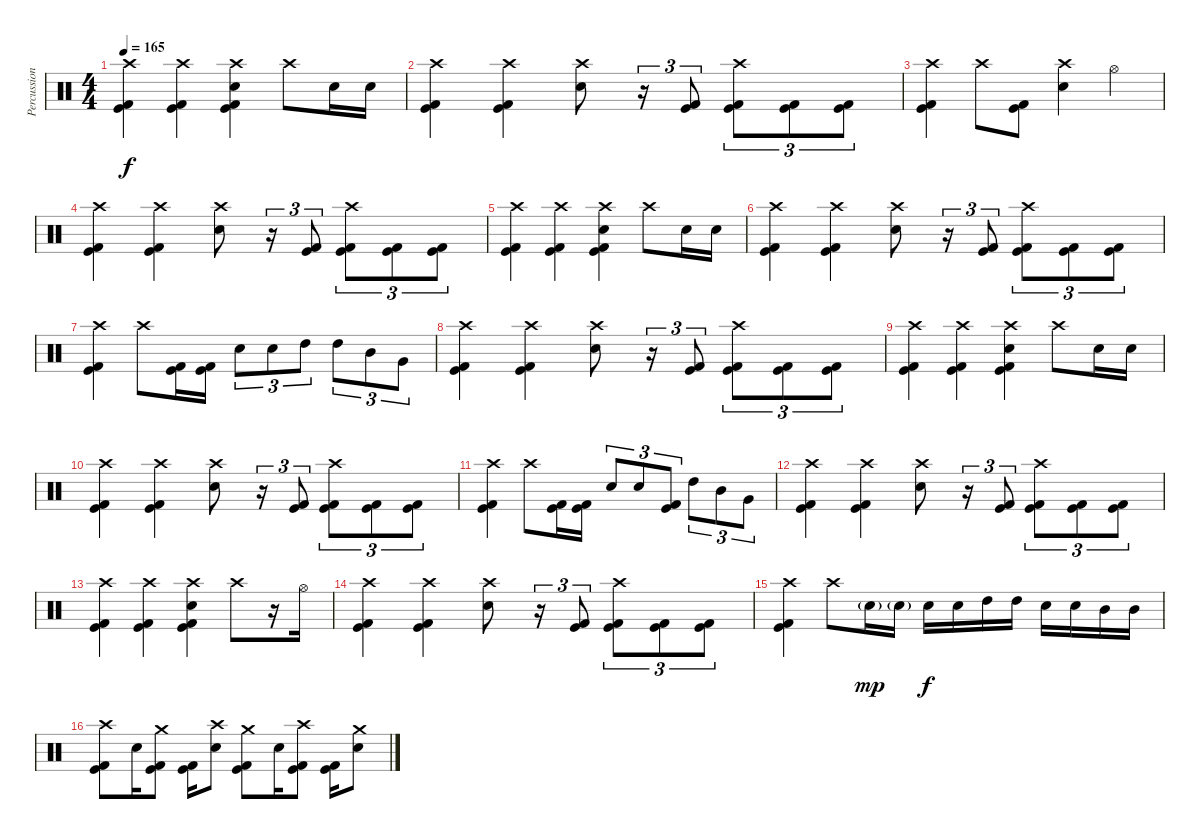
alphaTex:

\track ("Percussion" "Percussion") {instrument percussion}
\staff {score}
\articulation defaults
\ts (4 4)
\tempo 165
\clef neutral
\ks c
("Crash high (hit)" "Kick (hit)" "Kick (hit) 2").4{dy f} ("Crash high (hit)" "Kick (hit)" "Kick (hit) 2").4 ("Crash high (hit)" "Electric Snare (hit)" "Kick (hit)" "Kick (hit) 2").4 "Crash high (hit)".8 "Electric Snare (hit)".16 "Electric Snare (hit)".16 |
("Crash high (hit)" "Kick (hit)" "Kick (hit) 2").4 ("Crash high (hit)" "Kick (hit)" "Kick (hit) 2").4 ("Crash high (hit)" "Electric Snare (hit)").8 r.16{tu (3 2)} ("Kick (hit)" "Kick (hit) 2").8{tu (3 2)} ("Crash high (hit)" "Kick (hit)" "Kick (hit) 2").8{tu (3 2)} ("Kick (hit)" "Kick (hit) 2").8{tu (3 2)} ("Kick (hit)" "Kick (hit) 2").8{tu (3 2)} |
("Crash high (hit)" "Kick (hit)" "Kick (hit) 2").4 "Crash high (hit)".8 ("Kick (hit)" "Kick (hit) 2").8 ("Crash high (hit)" "Electric Snare (hit)").4 "Hi-Hat (open)".4 |
("Crash high (hit)" "Kick (hit)" "Kick (hit) 2").4 ("Crash high (hit)" "Kick (hit)" "Kick (hit) 2").4 ("Crash high (hit)" "Electric Snare (hit)").8 r.16{tu (3 2)} ("Kick (hit)" "Kick (hit) 2").8{tu (3 2)} ("Crash high (hit)" "Kick (hit)" "Kick (hit) 2").8{tu (3 2)} ("Kick (hit)" "Kick (hit) 2").8{tu (3 2)} ("Kick (hit)" "Kick (hit) 2").8{tu (3 2)} |
("Crash high (hit)" "Kick (hit)" "Kick (hit) 2").4 ("Crash high (hit)" "Kick (hit)" "Kick (hit) 2").4 ("Crash high (hit)" "Electric Snare (hit)" "Kick (hit)" "Kick (hit) 2").4 "Crash high (hit)".8 "Electric Snare (hit)".16 "Electric Snare (hit)".16 |
("Crash high (hit)" "Kick (hit)" "Kick (hit) 2").4 ("Crash high (hit)" "Kick (hit)" "Kick (hit) 2").4 ("Crash high (hit)" "Electric Snare (hit)").8 r.16{tu (3 2)} ("Kick (hit)" "Kick (hit) 2").8{tu (3 2)} ("Crash high (hit)" "Kick (hit)" "Kick (hit) 2").8{tu (3 2)} ("Kick (hit)" "Kick (hit) 2").8{tu (3 2)} ("Kick (hit)" "Kick (hit) 2").8{tu (3 2)} |
("Crash high (hit)" "Kick (hit)" "Kick (hit) 2").4 "Crash high (hit)".8 ("Kick (hit)" "Kick (hit) 2").16 ("Kick (hit)" "Kick (hit) 2").16 "Electric Snare (hit)".8{tu (3 2)} "Electric Snare (hit)".8{tu (3 2)} "High Tom (hit)".8{tu (3 2)} "High Tom (hit)".8{tu (3 2)} "Mid Tom (hit)".8{tu (3 2)} "Very Low Tom (hit)".8{tu (3 2)} |
("Crash high (hit)" "Kick (hit)" "Kick (hit) 2").4 ("Crash high (hit)" "Kick (hit)" "Kick (hit) 2").4 ("Crash high (hit)" "Electric Snare (hit)").8 r.16{tu (3 2)} ("Kick (hit)" "Kick (hit) 2").8{tu (3 2)} ("Crash high (hit)" "Kick (hit)" "Kick (hit) 2").8{tu (3 2)} ("Kick (hit)" "Kick (hit) 2").8{tu (3 2)} ("Kick (hit)" "Kick (hit) 2").8{tu (3 2)} |
("Crash high (hit)" "Kick (hit)" "Kick (hit) 2").4 ("Crash high (hit)" "Kick (hit)" "Kick (hit) 2").4 ("Crash high (hit)" "Electric Snare (hit)" "Kick (hit)" "Kick (hit) 2").4 "Crash high (hit)".8 "Electric Snare (hit)".16 "Electric Snare (hit)".16 |
("Crash high (hit)" "Kick (hit)" "Kick (hit) 2").4 ("Crash high (hit)" "Kick (hit)" "Kick (hit) 2").4 ("Crash high (hit)" "Electric Snare (hit)").8 r.16{tu (3 2)} ("Kick (hit)" "Kick (hit) 2").8{tu (3 2)} ("Crash high (hit)" "Kick (hit)" "Kick (hit) 2").8{tu (3 2)} ("Kick (hit)" "Kick (hit) 2").8{tu (3 2)} ("Kick (hit)" "Kick (hit) 2").8{tu (3 2)} |
("Crash high (hit)" "Kick (hit)" "Kick (hit) 2").4 "Crash high (hit)".8 ("Kick (hit)" "Kick (hit) 2").16 ("Kick (hit)" "Kick (hit) 2").16 "Electric Snare (hit)".8{tu (3 2)} "Electric Snare (hit)".8{tu (3 2)} ("Kick (hit)" "Kick (hit) 2").8{tu (3 2)} "High Tom (hit)".8{tu (3 2)} "Mid Tom (hit)".8{tu (3 2)} "Very Low Tom (hit)".8{tu (3 2)} |
("Crash high (hit)" "Kick (hit)" "Kick (hit) 2").4 ("Crash high (hit)" "Kick (hit)" "Kick (hit) 2").4 ("Crash high (hit)" "Electric Snare (hit)").8 r.16{tu (3 2)} ("Kick (hit)" "Kick (hit) 2").8{tu (3 2)} ("Crash high (hit)" "Kick (hit)" "Kick (hit) 2").8{tu (3 2)} ("Kick (hit)" "Kick (hit) 2").8{tu (3 2)} ("Kick (hit)" "Kick (hit) 2").8{tu (3 2)} |
("Crash high (hit)" "Kick (hit)" "Kick (hit) 2").4 ("Crash high (hit)" "Kick (hit)" "Kick (hit) 2").4 ("Crash high (hit)" "Electric Snare (hit)" "Kick (hit)" "Kick (hit) 2").4 "Crash high (hit)".8 r.16 "Hi-Hat (open)".16 |
("Crash high (hit)" "Kick (hit)" "Kick (hit) 2").4 ("Crash high (hit)" "Kick (hit)" "Kick (hit) 2").4 ("Crash high (hit)" "Electric Snare (hit)").8 r.16{tu (3 2)} ("Kick (hit)" "Kick (hit) 2").8{tu (3 2)} ("Crash high (hit)" "Kick (hit)" "Kick (hit) 2").8{tu (3 2)} ("Kick (hit)" "Kick (hit) 2").8{tu (3 2)} ("Kick (hit)" "Kick (hit) 2").8{tu (3 2)} |
("Crash high (hit)" "Kick (hit)" "Kick (hit) 2").4 "Crash high (hit)".8 "Electric Snare (hit)"{g}.16{dy mp} "Electric Snare (hit)"{g}.16 "Electric Snare (hit)".16{dy f} "Electric Snare (hit)".16 "High Tom (hit)".16 "High Tom (hit)".16 "Electric Snare (hit)".16 "Electric Snare (hit)".16 "Mid Tom (hit)".16 "Mid Tom (hit)".16 |
("Crash high (hit)" "Kick (hit)" "Kick (hit) 2").8 "Electric Snare (hit)".16 ("Crash medium (hit)" "Kick (hit)" "Kick (hit) 2").8 ("Kick (hit)" "Kick (hit) 2").16 ("Crash high (hit)" "Electric Snare (hit)").8 ("Crash medium (hit)" "Kick (hit)" "Kick (hit) 2").8 "Electric Snare (hit)".16 ("Crash high (hit)" "Kick (hit)" "Kick (hit) 2").8 ("Kick (hit)" "Kick (hit) 2").16 ("Crash medium (hit)" "Electric Snare (hit)").8
